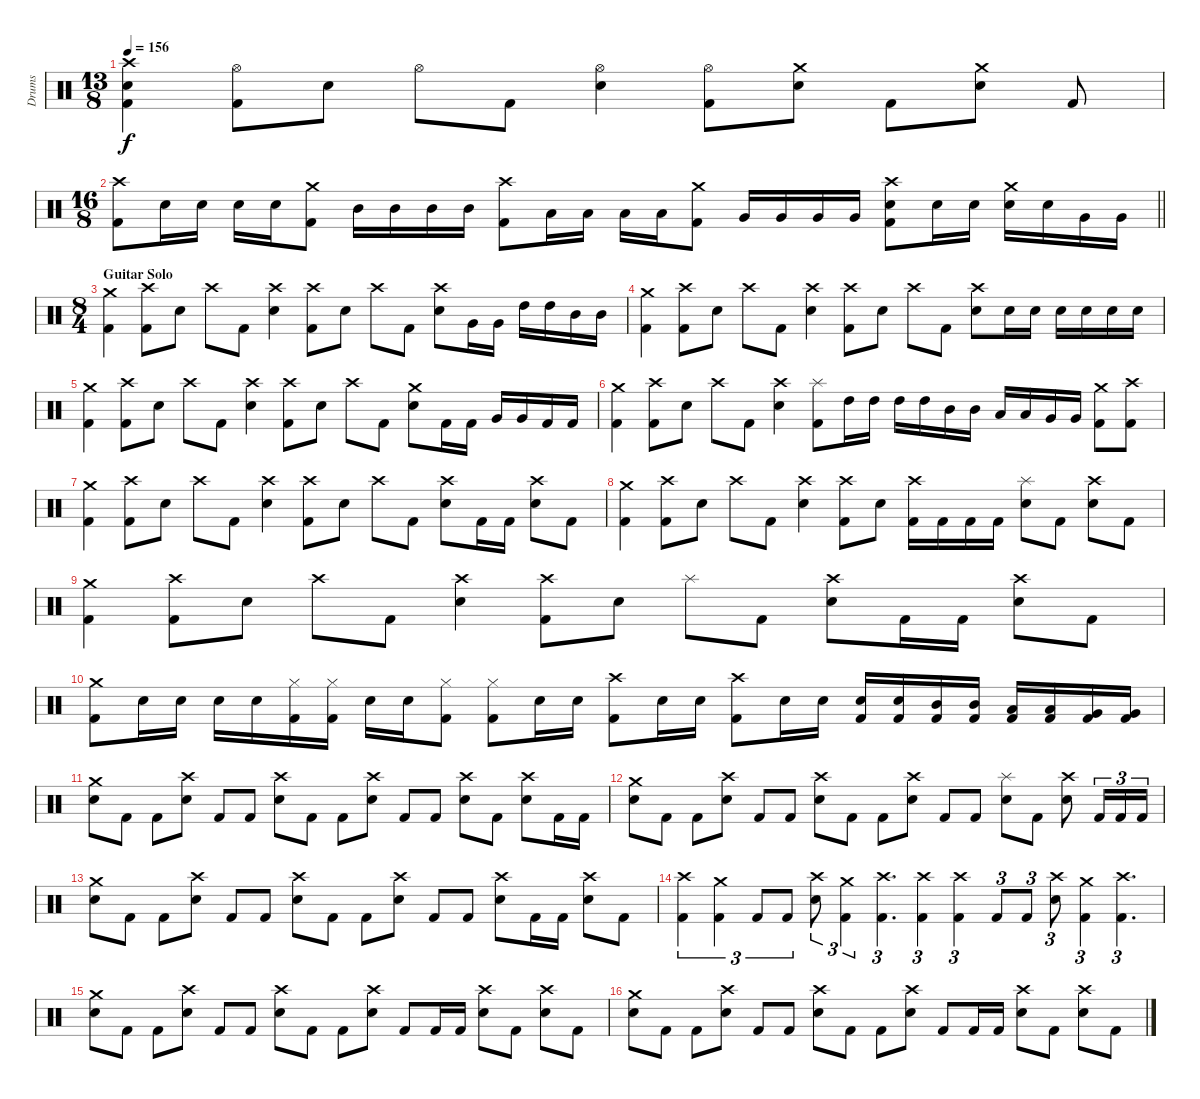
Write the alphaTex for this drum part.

\track ("Drums" "Drums") {instrument percussion}
\staff {score}
\articulation defaults
\ts (13 8)
\tempo 156
\clef neutral
\ks c
("Crash high (hit)" "Snare (hit) 2" "Kick (hit) 2").4{dy f} ("Hi-Hat (open)" "Kick (hit) 2").8 "Snare (hit) 2".8 "Hi-Hat (open)".8 "Kick (hit) 2".8 ("Hi-Hat (open)" "Snare (hit) 2").4 ("Hi-Hat (open)" "Kick (hit) 2").8 ("Crash medium (hit)" "Snare (hit) 2").8 "Kick (hit) 2".8 ("Crash medium (hit)" "Snare (hit) 2").8 "Kick (hit) 2".8 |
\ts (16 8)
\barLineRight lightlight
("Crash high (hit)" "Kick (hit) 2").8 "Snare (hit) 2".16 "Snare (hit) 2".16 "Snare (hit) 2".16 "Snare (hit) 2".16 ("Crash medium (hit)" "Kick (hit) 2").8 "Mid Tom (hit)".16 "Mid Tom (hit)".16 "Mid Tom (hit)".16 "Mid Tom (hit)".16 ("Crash high (hit)" "Kick (hit) 2").8 "Low Tom (hit)".16 "Low Tom (hit)".16 "Low Tom (hit)".16 "Low Tom (hit)".16 ("Crash medium (hit)" "Kick (hit) 2").8 "Very Low Tom (hit)".16 "Very Low Tom (hit)".16 "Very Low Tom (hit)".16 "Very Low Tom (hit)".16 ("Crash high (hit)" "Snare (hit) 2" "Kick (hit) 2").8 "Snare (hit) 2".16 "Snare (hit) 2".16 ("Crash medium (hit)" "Snare (hit) 2").16 "Snare (hit) 2".16 "Very Low Tom (hit)".16 "Very Low Tom (hit)".16 |
\ts (8 4)
\section ("" "Guitar Solo")
("Crash medium (hit)" "Kick (hit) 2").4 ("Crash high (hit)" "Kick (hit) 2").8 "Snare (hit) 2".8 "Crash high (hit)".8 "Kick (hit) 2".8 ("Crash high (hit)" "Snare (hit) 2").4 ("Crash high (hit)" "Kick (hit) 2").8 "Snare (hit) 2".8 "Crash high (hit)".8 "Kick (hit) 2".8 ("Crash high (hit)" "Snare (hit) 2").8 "Very Low Tom (hit)".16 "Very Low Tom (hit)".16 "High Tom (hit)".16 "High Tom (hit)".16 "Mid Tom (hit)".16 "Mid Tom (hit)".16 |
("Crash medium (hit)" "Kick (hit) 2").4 ("Crash high (hit)" "Kick (hit) 2").8 "Snare (hit) 2".8 "Crash high (hit)".8 "Kick (hit) 2".8 ("Crash high (hit)" "Snare (hit) 2").4 ("Crash high (hit)" "Kick (hit) 2").8 "Snare (hit) 2".8 "Crash high (hit)".8 "Kick (hit) 2".8 ("Crash high (hit)" "Snare (hit) 2").8 "Snare (hit) 2".16 "Snare (hit) 2".16 "Snare (hit) 2".16 "Snare (hit) 2".16 "Snare (hit) 2".16 "Snare (hit) 2".16 |
("Crash medium (hit)" "Kick (hit) 2").4 ("Crash high (hit)" "Kick (hit) 2").8 "Snare (hit) 2".8 "Crash high (hit)".8 "Kick (hit) 2".8 ("Crash high (hit)" "Snare (hit) 2").4 ("Crash high (hit)" "Kick (hit) 2").8 "Snare (hit) 2".8 "Crash high (hit)".8 "Kick (hit) 2".8 ("Crash medium (hit)" "Snare (hit) 2").8 "Kick (hit) 2".16 "Kick (hit) 2".16 "Very Low Tom (hit)".16 "Very Low Tom (hit)".16 "Kick (hit) 2".16 "Kick (hit) 2".16 |
("Crash medium (hit)" "Kick (hit) 2").4 ("Crash high (hit)" "Kick (hit) 2").8 "Snare (hit) 2".8 "Crash high (hit)".8 "Kick (hit) 2".8 ("Crash high (hit)" "Snare (hit) 2").4 ("Splash (hit)" "Kick (hit) 2").8 "High Tom (hit)".16 "High Tom (hit)".16 "High Tom (hit)".16 "High Tom (hit)".16 "Mid Tom (hit)".16 "Mid Tom (hit)".16 "Low Tom (hit)".16 "Low Tom (hit)".16 "Very Low Tom (hit)".16 "Very Low Tom (hit)".16 ("Crash medium (hit)" "Kick (hit) 2").8 ("Crash high (hit)" "Kick (hit) 2").8 |
("Crash medium (hit)" "Kick (hit) 2").4 ("Crash high (hit)" "Kick (hit) 2").8 "Snare (hit) 2".8 "Crash high (hit)".8 "Kick (hit) 2".8 ("Crash high (hit)" "Snare (hit) 2").4 ("Crash high (hit)" "Kick (hit) 2").8 "Snare (hit) 2".8 "Crash high (hit)".8 "Kick (hit) 2".8 ("Crash high (hit)" "Snare (hit) 2").8 "Kick (hit) 2".16 "Kick (hit) 2".16 ("Crash high (hit)" "Snare (hit) 2").8 "Kick (hit) 2".8 |
("Crash medium (hit)" "Kick (hit) 2").4 ("Crash high (hit)" "Kick (hit) 2").8 "Snare (hit) 2".8 "Crash high (hit)".8 "Kick (hit) 2".8 ("Crash high (hit)" "Snare (hit) 2").4 ("Crash high (hit)" "Kick (hit) 2").8 "Snare (hit) 2".8 ("Crash high (hit)" "Kick (hit) 2").16 "Kick (hit) 2".16 "Kick (hit) 2".16 "Kick (hit) 2".16 ("Splash (hit)" "Snare (hit) 2").8 "Kick (hit) 2".8 ("Crash high (hit)" "Snare (hit) 2").8 "Kick (hit) 2".8 |
("Crash medium (hit)" "Kick (hit) 2").4 ("Crash high (hit)" "Kick (hit) 2").8 "Snare (hit) 2".8 "Crash high (hit)".8 "Kick (hit) 2".8 ("Crash high (hit)" "Snare (hit) 2").4 ("Crash high (hit)" "Kick (hit) 2").8 "Snare (hit) 2".8 "Splash (hit)".8 "Kick (hit) 2".8 ("Crash high (hit)" "Snare (hit) 2").8 "Kick (hit) 2".16 "Kick (hit) 2".16 ("Crash high (hit)" "Snare (hit) 2").8 "Kick (hit) 2".8 |
("Crash medium (hit)" "Kick (hit) 2").8 "Snare (hit) 2".16 "Snare (hit) 2".16 "Snare (hit) 2".16 "Snare (hit) 2".16 ("Hi-Hat (closed)" "Kick (hit) 2").16 ("Hi-Hat (closed)" "Kick (hit) 2").16 "Snare (hit) 2".16 "Snare (hit) 2".16 ("Hi-Hat (closed)" "Kick (hit) 2").8 ("Hi-Hat (closed)" "Kick (hit) 2").8 "Snare (hit) 2".16 "Snare (hit) 2".16 ("Crash high (hit)" "Kick (hit) 2").8 "Snare (hit) 2".16 "Snare (hit) 2".16 ("Crash high (hit)" "Kick (hit) 2").8 "Snare (hit) 2".16 "Snare (hit) 2".16 ("Snare (hit) 2" "Kick (hit) 2").16 ("Snare (hit) 2" "Kick (hit) 2").16 ("Mid Tom (hit)" "Kick (hit) 2").16 ("Mid Tom (hit)" "Kick (hit) 2").16 ("Low Tom (hit)" "Kick (hit) 2").16 ("Low Tom (hit)" "Kick (hit) 2").16 ("Very Low Tom (hit)" "Kick (hit) 2").16 ("Very Low Tom (hit)" "Kick (hit) 2").16 |
("Crash medium (hit)" "Snare (hit) 2").8 "Kick (hit) 2".8 "Kick (hit) 2".8 ("Crash high (hit)" "Snare (hit) 2").8 "Kick (hit) 2".8 "Kick (hit) 2".8 ("Crash high (hit)" "Snare (hit) 2").8 "Kick (hit) 2".8 "Kick (hit) 2".8 ("Crash high (hit)" "Snare (hit) 2").8 "Kick (hit) 2".8 "Kick (hit) 2".8 ("Crash high (hit)" "Snare (hit) 2").8 "Kick (hit) 2".8 ("Crash high (hit)" "Snare (hit) 2").8 "Kick (hit) 2".16 "Kick (hit) 2".16 |
("Crash medium (hit)" "Snare (hit) 2").8 "Kick (hit) 2".8 "Kick (hit) 2".8 ("Crash high (hit)" "Snare (hit) 2").8 "Kick (hit) 2".8 "Kick (hit) 2".8 ("Crash high (hit)" "Snare (hit) 2").8 "Kick (hit) 2".8 "Kick (hit) 2".8 ("Crash high (hit)" "Snare (hit) 2").8 "Kick (hit) 2".8 "Kick (hit) 2".8 ("Splash (hit)" "Snare (hit) 2").8 "Kick (hit) 2".8 ("Crash high (hit)" "Snare (hit) 2").8 "Kick (hit) 2".16{tu (3 2)} "Kick (hit) 2".16{tu (3 2)} "Kick (hit) 2".16{tu (3 2)} |
("Crash medium (hit)" "Snare (hit) 2").8 "Kick (hit) 2".8 "Kick (hit) 2".8 ("Crash high (hit)" "Snare (hit) 2").8 "Kick (hit) 2".8 "Kick (hit) 2".8 ("Crash high (hit)" "Snare (hit) 2").8 "Kick (hit) 2".8 "Kick (hit) 2".8 ("Crash high (hit)" "Snare (hit) 2").8 "Kick (hit) 2".8 "Kick (hit) 2".8 ("Crash high (hit)" "Snare (hit) 2").8 "Kick (hit) 2".16 "Kick (hit) 2".16 ("Crash high (hit)" "Snare (hit) 2").8 "Kick (hit) 2".8 |
("Crash high (hit)" "Kick (hit) 2").4{tu (3 2)} ("Crash medium (hit)" "Kick (hit) 2").4{tu (3 2)} "Kick (hit) 2".8{tu (3 2)} "Kick (hit) 2".8{tu (3 2)} ("Crash high (hit)" "Snare (hit) 2").8{tu (3 2)} ("Crash medium (hit)" "Kick (hit) 2").4{tu (3 2)} ("Crash high (hit)" "Kick (hit) 2").4{d tu (3 2)} ("Crash high (hit)" "Kick (hit) 2").4{tu (3 2)} ("Crash high (hit)" "Kick (hit) 2").4{tu (3 2)} "Kick (hit) 2".8{tu (3 2)} "Kick (hit) 2".8{tu (3 2)} ("Crash high (hit)" "Snare (hit) 2").8{tu (3 2)} ("Crash medium (hit)" "Kick (hit) 2").4{tu (3 2)} ("Crash high (hit)" "Kick (hit) 2").4{d tu (3 2)} |
("Crash medium (hit)" "Snare (hit) 2").8 "Kick (hit) 2".8 "Kick (hit) 2".8 ("Crash high (hit)" "Snare (hit) 2").8 "Kick (hit) 2".8 "Kick (hit) 2".8 ("Crash high (hit)" "Snare (hit) 2").8 "Kick (hit) 2".8 "Kick (hit) 2".8 ("Crash high (hit)" "Snare (hit) 2").8 "Kick (hit) 2".8 "Kick (hit) 2".16 "Kick (hit) 2".16 ("Crash high (hit)" "Snare (hit) 2").8 "Kick (hit) 2".8 ("Crash high (hit)" "Snare (hit) 2").8 "Kick (hit) 2".8 |
("Crash medium (hit)" "Snare (hit) 2").8 "Kick (hit) 2".8 "Kick (hit) 2".8 ("Crash high (hit)" "Snare (hit) 2").8 "Kick (hit) 2".8 "Kick (hit) 2".8 ("Crash high (hit)" "Snare (hit) 2").8 "Kick (hit) 2".8 "Kick (hit) 2".8 ("Crash high (hit)" "Snare (hit) 2").8 "Kick (hit) 2".8 "Kick (hit) 2".16 "Kick (hit) 2".16 ("Crash high (hit)" "Snare (hit) 2").8 "Kick (hit) 2".8 ("Crash high (hit)" "Snare (hit) 2").8 "Kick (hit) 2".8
